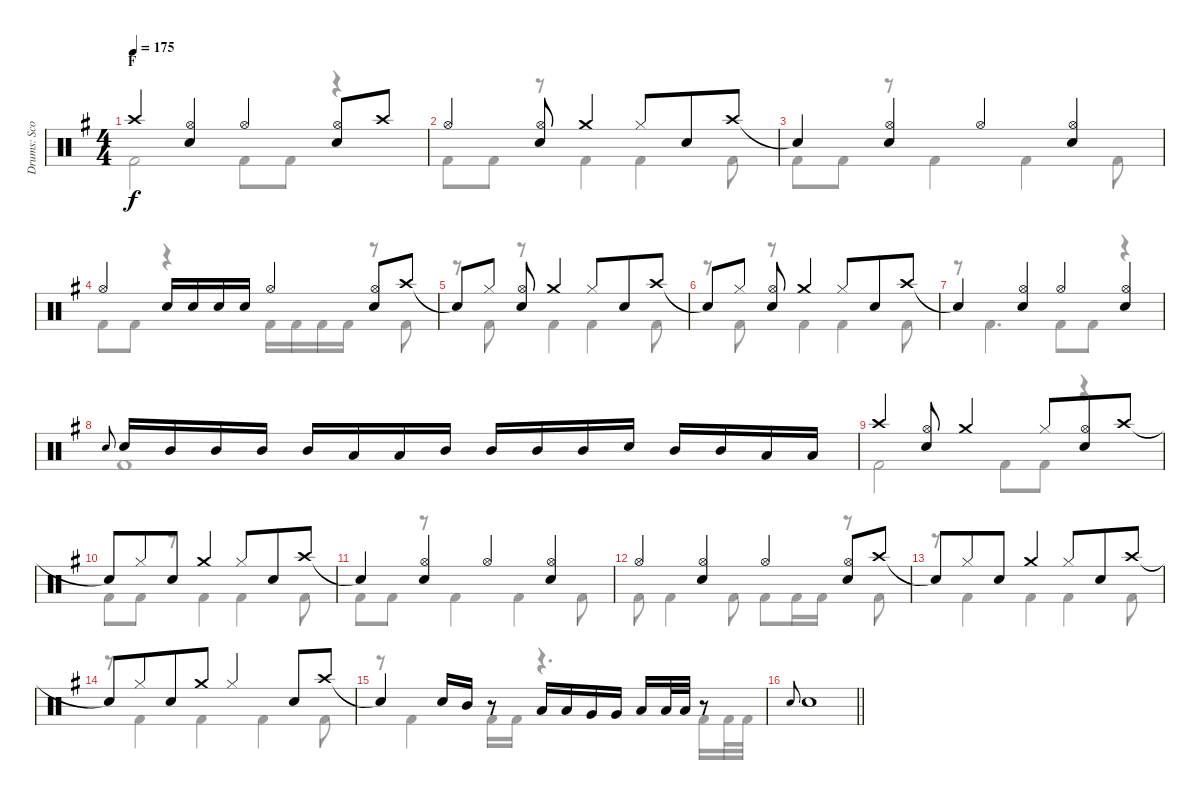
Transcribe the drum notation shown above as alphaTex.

\track ("Drums: Scott" "Drums: Sco") {instrument percussion}
\staff {score}
\articulation defaults
\voice
\ts (4 4)
\section ("" "F")
\tempo 175
\clef neutral
\ks g "Crash high (hit)".4{dy f}
("Hi-Hat (open)" "Snare (hit) 2").4 "Hi-Hat (open)".4 ("Hi-Hat (open)" "Snare (hit) 2").8 "Crash high (hit)".8 |
"Hi-Hat (open)".4 ("Hi-Hat (open)" "Snare (hit) 2").8 "Crash medium (hit)".4 "Hi-Hat (closed)".8{beam merge} "Snare (hit) 2".8 "Crash high (hit)".8 |
"Snare (hit)"{t}.4 ("Hi-Hat (open)" "Snare (hit) 2").4 "Hi-Hat (open)".4 ("Hi-Hat (open)" "Snare (hit) 2").4 |
"Hi-Hat (open)".4 "Snare (hit) 2".16 "Snare (hit) 2".16 "Snare (hit) 2".16 "Snare (hit) 2".16 "Hi-Hat (open)".4 ("Hi-Hat (open)" "Snare (hit) 2").8 "Crash high (hit)".8 |
"Snare (hit)"{t}.8 "Hi-Hat (closed)".8 ("Hi-Hat (open)" "Snare (hit) 2").8 "Crash medium (hit)".4 "Hi-Hat (closed)".8{beam merge} "Snare (hit) 2".8 "Crash high (hit)".8 |
"Snare (hit)"{t}.8 "Hi-Hat (closed)".8 ("Hi-Hat (open)" "Snare (hit) 2").8 "Crash medium (hit)".4 "Hi-Hat (closed)".8{beam merge} "Snare (hit) 2".8 "Crash high (hit)".8 |
"Snare (hit)"{t}.4 ("Hi-Hat (open)" "Snare (hit) 2").4 "Hi-Hat (open)".4 ("Hi-Hat (open)" "Snare (hit) 2").4 |
"Electric Snare (hit)".8{gr onbeat} "Snare (hit) 2".16 "Mid Tom (hit)".16 "Mid Tom (hit)".16 "Mid Tom (hit)".16 "Mid Tom (hit)".16 "Low Tom (hit)".16 "Low Tom (hit)".16 "Mid Tom (hit)".16 "Mid Tom (hit)".16 "Mid Tom (hit)".16 "Mid Tom (hit)".16 "Snare (hit) 2".16 "Mid Tom (hit)".16 "Mid Tom (hit)".16 "Low Tom (hit)".16 "Low Tom (hit)".16 |
"Crash high (hit)".4 ("Hi-Hat (open)" "Snare (hit) 2").8 "Crash medium (hit)".4 "Hi-Hat (closed)".8{beam merge} ("Hi-Hat (open)" "Snare (hit) 2").8 "Crash high (hit)".8 |
"Snare (hit)"{t}.8 "Hi-Hat (closed)".8{beam merge} "Snare (hit) 2".8 "Crash medium (hit)".4 "Hi-Hat (closed)".8{beam merge} "Snare (hit) 2".8 "Crash high (hit)".8 |
"Snare (hit)"{t}.4 ("Hi-Hat (open)" "Snare (hit) 2").4 "Hi-Hat (open)".4 ("Hi-Hat (open)" "Snare (hit) 2").4 |
"Hi-Hat (open)".4 ("Hi-Hat (open)" "Snare (hit) 2").4 "Hi-Hat (open)".4 ("Hi-Hat (open)" "Snare (hit) 2").8 "Crash high (hit)".8 |
"Snare (hit)"{t}.8 "Hi-Hat (closed)".8{beam merge} "Snare (hit) 2".8 "Crash medium (hit)".4 "Hi-Hat (closed)".8{beam merge} "Snare (hit) 2".8 "Crash high (hit)".8 |
"Snare (hit)"{t}.8 "Hi-Hat (closed)".8{beam merge} "Snare (hit) 2".8 "Crash medium (hit)".8 "Hi-Hat (closed)".4{beam merge} "Snare (hit) 2".8 "Crash high (hit)".8 |
"Snare (hit)"{t}.4 "Snare (hit) 2".16 "Mid Tom (hit)".16 r.8 "Low Tom (hit)".16 "Low Tom (hit)".16 "Very Low Tom (hit)".16 "Very Low Tom (hit)".16 "Low Floor Tom (hit)".16 "Low Floor Tom (hit)".32 "Low Floor Tom (hit)".32 r.8 |
\barLineRight lightlight "Electric Snare (hit)".8{gr onbeat} "Snare (hit) 2".1
\voice
\clef neutral
\ottava regular
\simile none
\ks g "Kick (hit) 2".2{dy f} "Kick (hit) 2".8 "Kick (hit) 2".8
r.4 |
"Kick (hit) 2".8 "Kick (hit) 2".8 r.8 "Kick (hit) 2".4 "Kick (hit) 2".4 "Kick (hit) 2".8 |
"Kick (hit) 2".8 "Kick (hit) 2".8 r.8 "Kick (hit) 2".4 "Kick (hit) 2".4 "Kick (hit) 2".8 |
"Kick (hit) 2".8 "Kick (hit) 2".8 r.4 "Kick (hit) 2".16 "Kick (hit) 2".16 "Kick (hit) 2".16 "Kick (hit) 2".16 r.8 "Kick (hit) 2".8 |
r.8 "Kick (hit) 2".8 r.8 "Kick (hit) 2".4 "Kick (hit) 2".4 "Kick (hit) 2".8 |
r.8 "Kick (hit) 2".8 r.8 "Kick (hit) 2".4 "Kick (hit) 2".4 "Kick (hit) 2".8 |
r.8 "Kick (hit) 2".4{d} "Kick (hit) 2".8 "Kick (hit) 2".8 r.4 |
"Kick (hit) 2".1 |
"Kick (hit) 2".2 "Kick (hit) 2".8 "Kick (hit) 2".8 r.4 |
"Kick (hit) 2".8 "Kick (hit) 2".8 r.8 "Kick (hit) 2".4 "Kick (hit) 2".4 "Kick (hit) 2".8 |
"Kick (hit) 2".8 "Kick (hit) 2".8 r.8 "Kick (hit) 2".4 "Kick (hit) 2".4 "Kick (hit) 2".8 |
"Kick (hit) 2".8 "Kick (hit) 2".4 "Kick (hit) 2".8 "Kick (hit) 2".8 "Kick (hit) 2".16 "Kick (hit) 2".16 r.8 "Kick (hit) 2".8 |
r.8 "Kick (hit) 2".4 "Kick (hit) 2".4 "Kick (hit) 2".4 "Kick (hit) 2".8 |
r.8 "Kick (hit) 2".4 "Kick (hit) 2".4 "Kick (hit) 2".4 "Kick (hit) 2".8 |
r.8 "Kick (hit) 2".4 "Kick (hit) 2".16 "Kick (hit) 2".16 r.4{d} "Kick (hit) 2".16 "Kick (hit) 2".32 "Kick (hit) 2".32 |
\barLineRight lightlight
